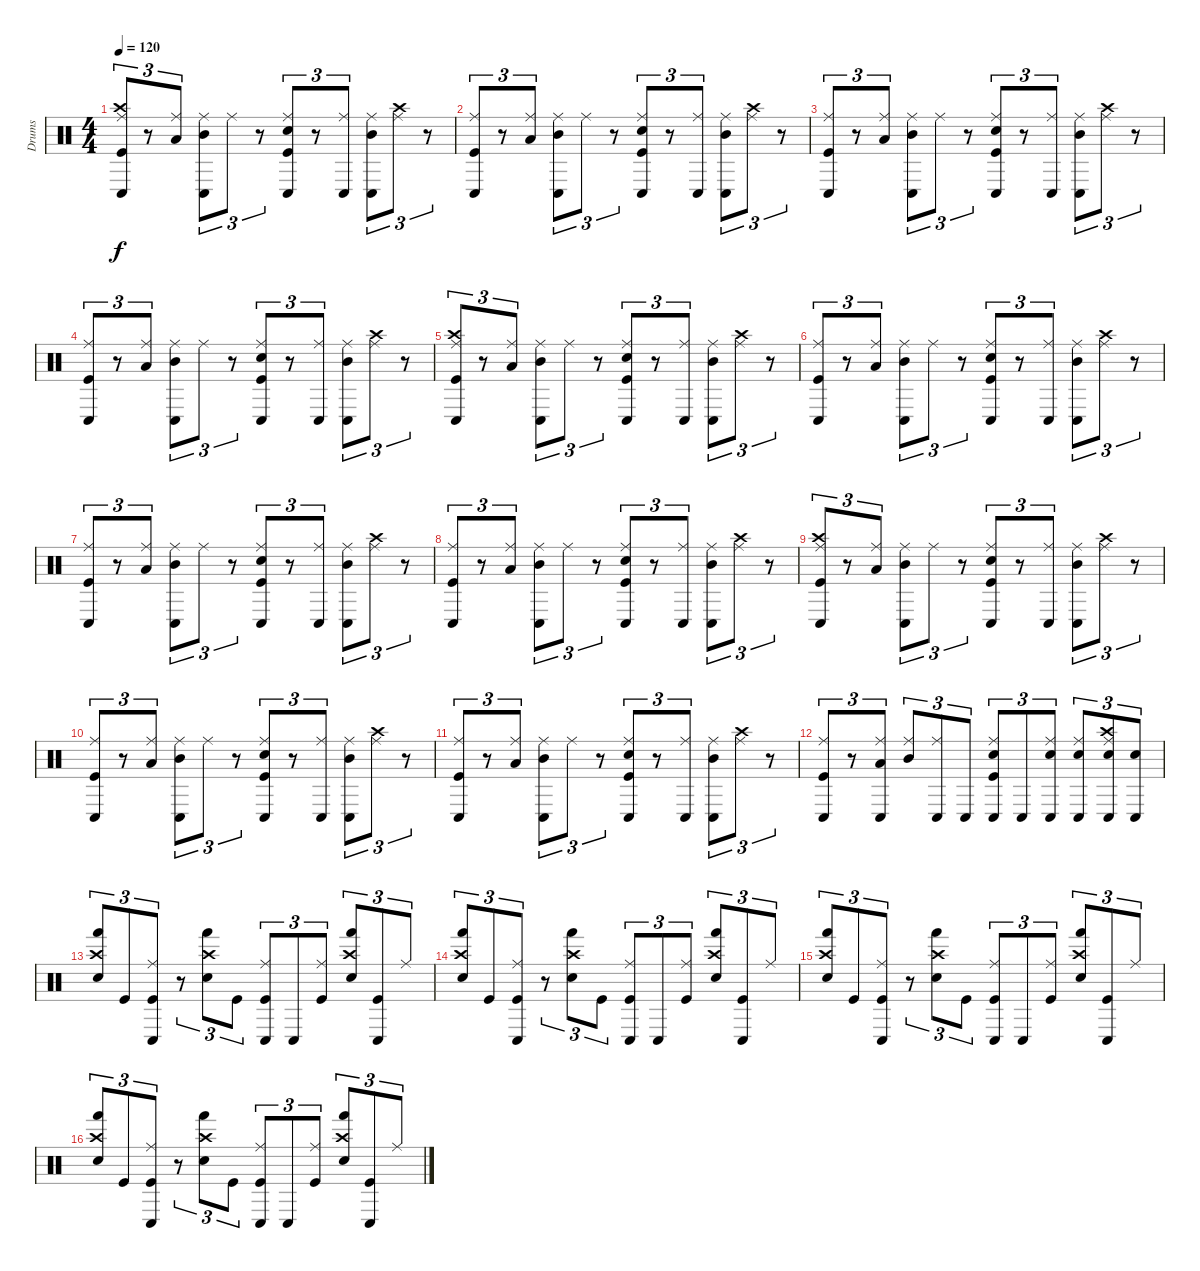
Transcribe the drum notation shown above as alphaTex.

\track ("Drums" "Drums") {instrument percussion}
\staff {score}
\articulation defaults
\ts (4 4)
\tempo 120
\clef neutral
\ks c
("Kick (hit)" "Ride (middle)" "Crash high (hit)" "Conga low (hit)").8{tu (3 2) dy f} r.8{tu (3 2)} ("Low Floor Tom (hit)" "Ride (middle)").8{tu (3 2)} ("Mid Tom (hit)" "Ride (middle)" "Conga low (hit)").8{tu (3 2)} "Ride (middle)".8{tu (3 2)} r.8{tu (3 2)} ("Kick (hit)" "Snare (hit) 2" "Ride (middle)" "Conga low (hit)").8{tu (3 2)} r.8{tu (3 2)} ("Ride (middle)" "Conga low (hit)").8{tu (3 2)} ("Mid Tom (hit)" "Ride (middle)" "Conga low (hit)").8{tu (3 2)} ("Ride (middle)" "Crash high (hit)").8{tu (3 2)} r.8{tu (3 2)} |
("Kick (hit)" "Ride (middle)" "Conga low (hit)").8{tu (3 2)} r.8{tu (3 2)} ("Low Floor Tom (hit)" "Ride (middle)").8{tu (3 2)} ("Mid Tom (hit)" "Ride (middle)" "Conga low (hit)").8{tu (3 2)} "Ride (middle)".8{tu (3 2)} r.8{tu (3 2)} ("Kick (hit)" "Snare (hit) 2" "Ride (middle)" "Conga low (hit)").8{tu (3 2)} r.8{tu (3 2)} ("Ride (middle)" "Conga low (hit)").8{tu (3 2)} ("Mid Tom (hit)" "Ride (middle)" "Conga low (hit)").8{tu (3 2)} ("Ride (middle)" "Crash high (hit)").8{tu (3 2)} r.8{tu (3 2)} |
("Kick (hit)" "Ride (middle)" "Conga low (hit)").8{tu (3 2)} r.8{tu (3 2)} ("Low Floor Tom (hit)" "Ride (middle)").8{tu (3 2)} ("Mid Tom (hit)" "Ride (middle)" "Conga low (hit)").8{tu (3 2)} "Ride (middle)".8{tu (3 2)} r.8{tu (3 2)} ("Kick (hit)" "Snare (hit) 2" "Ride (middle)" "Conga low (hit)").8{tu (3 2)} r.8{tu (3 2)} ("Ride (middle)" "Conga low (hit)").8{tu (3 2)} ("Mid Tom (hit)" "Ride (middle)" "Conga low (hit)").8{tu (3 2)} ("Ride (middle)" "Crash high (hit)").8{tu (3 2)} r.8{tu (3 2)} |
("Kick (hit)" "Ride (middle)" "Conga low (hit)").8{tu (3 2)} r.8{tu (3 2)} ("Low Floor Tom (hit)" "Ride (middle)").8{tu (3 2)} ("Mid Tom (hit)" "Ride (middle)" "Conga low (hit)").8{tu (3 2)} "Ride (middle)".8{tu (3 2)} r.8{tu (3 2)} ("Kick (hit)" "Snare (hit) 2" "Ride (middle)" "Conga low (hit)").8{tu (3 2)} r.8{tu (3 2)} ("Ride (middle)" "Conga low (hit)").8{tu (3 2)} ("Mid Tom (hit)" "Ride (middle)" "Conga low (hit)").8{tu (3 2)} ("Ride (middle)" "Crash high (hit)").8{tu (3 2)} r.8{tu (3 2)} |
("Kick (hit)" "Ride (middle)" "Crash high (hit)" "Conga low (hit)").8{tu (3 2)} r.8{tu (3 2)} ("Low Floor Tom (hit)" "Ride (middle)").8{tu (3 2)} ("Mid Tom (hit)" "Ride (middle)" "Conga low (hit)").8{tu (3 2)} "Ride (middle)".8{tu (3 2)} r.8{tu (3 2)} ("Kick (hit)" "Snare (hit) 2" "Ride (middle)" "Conga low (hit)").8{tu (3 2)} r.8{tu (3 2)} ("Ride (middle)" "Conga low (hit)").8{tu (3 2)} ("Mid Tom (hit)" "Ride (middle)" "Conga low (hit)").8{tu (3 2)} ("Ride (middle)" "Crash high (hit)").8{tu (3 2)} r.8{tu (3 2)} |
("Kick (hit)" "Ride (middle)" "Conga low (hit)").8{tu (3 2)} r.8{tu (3 2)} ("Low Floor Tom (hit)" "Ride (middle)").8{tu (3 2)} ("Mid Tom (hit)" "Ride (middle)" "Conga low (hit)").8{tu (3 2)} "Ride (middle)".8{tu (3 2)} r.8{tu (3 2)} ("Kick (hit)" "Snare (hit) 2" "Ride (middle)" "Conga low (hit)").8{tu (3 2)} r.8{tu (3 2)} ("Ride (middle)" "Conga low (hit)").8{tu (3 2)} ("Mid Tom (hit)" "Ride (middle)" "Conga low (hit)").8{tu (3 2)} ("Ride (middle)" "Crash high (hit)").8{tu (3 2)} r.8{tu (3 2)} |
("Kick (hit)" "Ride (middle)" "Conga low (hit)").8{tu (3 2)} r.8{tu (3 2)} ("Low Floor Tom (hit)" "Ride (middle)").8{tu (3 2)} ("Mid Tom (hit)" "Ride (middle)" "Conga low (hit)").8{tu (3 2)} "Ride (middle)".8{tu (3 2)} r.8{tu (3 2)} ("Kick (hit)" "Snare (hit) 2" "Ride (middle)" "Conga low (hit)").8{tu (3 2)} r.8{tu (3 2)} ("Ride (middle)" "Conga low (hit)").8{tu (3 2)} ("Mid Tom (hit)" "Ride (middle)" "Conga low (hit)").8{tu (3 2)} ("Ride (middle)" "Crash high (hit)").8{tu (3 2)} r.8{tu (3 2)} |
("Kick (hit)" "Ride (middle)" "Conga low (hit)").8{tu (3 2)} r.8{tu (3 2)} ("Low Floor Tom (hit)" "Ride (middle)").8{tu (3 2)} ("Mid Tom (hit)" "Ride (middle)" "Conga low (hit)").8{tu (3 2)} "Ride (middle)".8{tu (3 2)} r.8{tu (3 2)} ("Kick (hit)" "Snare (hit) 2" "Ride (middle)" "Conga low (hit)").8{tu (3 2)} r.8{tu (3 2)} ("Ride (middle)" "Conga low (hit)").8{tu (3 2)} ("Mid Tom (hit)" "Ride (middle)" "Conga low (hit)").8{tu (3 2)} ("Ride (middle)" "Crash high (hit)").8{tu (3 2)} r.8{tu (3 2)} |
("Kick (hit)" "Ride (middle)" "Crash high (hit)" "Conga low (hit)").8{tu (3 2)} r.8{tu (3 2)} ("Low Floor Tom (hit)" "Ride (middle)").8{tu (3 2)} ("Mid Tom (hit)" "Ride (middle)" "Conga low (hit)").8{tu (3 2)} "Ride (middle)".8{tu (3 2)} r.8{tu (3 2)} ("Kick (hit)" "Snare (hit) 2" "Ride (middle)" "Conga low (hit)").8{tu (3 2)} r.8{tu (3 2)} ("Ride (middle)" "Conga low (hit)").8{tu (3 2)} ("Mid Tom (hit)" "Ride (middle)" "Conga low (hit)").8{tu (3 2)} ("Ride (middle)" "Crash high (hit)").8{tu (3 2)} r.8{tu (3 2)} |
("Kick (hit)" "Ride (middle)" "Conga low (hit)").8{tu (3 2)} r.8{tu (3 2)} ("Low Floor Tom (hit)" "Ride (middle)").8{tu (3 2)} ("Mid Tom (hit)" "Ride (middle)" "Conga low (hit)").8{tu (3 2)} "Ride (middle)".8{tu (3 2)} r.8{tu (3 2)} ("Kick (hit)" "Snare (hit) 2" "Ride (middle)" "Conga low (hit)").8{tu (3 2)} r.8{tu (3 2)} ("Ride (middle)" "Conga low (hit)").8{tu (3 2)} ("Mid Tom (hit)" "Ride (middle)" "Conga low (hit)").8{tu (3 2)} ("Ride (middle)" "Crash high (hit)").8{tu (3 2)} r.8{tu (3 2)} |
("Kick (hit)" "Ride (middle)" "Conga low (hit)").8{tu (3 2)} r.8{tu (3 2)} ("Low Floor Tom (hit)" "Ride (middle)").8{tu (3 2)} ("Mid Tom (hit)" "Ride (middle)" "Conga low (hit)").8{tu (3 2)} "Ride (middle)".8{tu (3 2)} r.8{tu (3 2)} ("Kick (hit)" "Snare (hit) 2" "Ride (middle)" "Conga low (hit)").8{tu (3 2)} r.8{tu (3 2)} ("Ride (middle)" "Conga low (hit)").8{tu (3 2)} ("Mid Tom (hit)" "Ride (middle)" "Conga low (hit)").8{tu (3 2)} ("Ride (middle)" "Crash high (hit)").8{tu (3 2)} r.8{tu (3 2)} |
("Kick (hit)" "Ride (middle)" "Conga low (hit)").8{tu (3 2)} r.8{tu (3 2)} ("Low Floor Tom (hit)" "Ride (middle)" "Conga low (hit)").8{tu (3 2)} ("Mid Tom (hit)" "Ride (middle)").8{tu (3 2)} ("Ride (middle)" "Conga low (hit)").8{tu (3 2)} "Conga low (hit)".8{tu (3 2)} ("Kick (hit)" "Snare (hit) 2" "Ride (middle)" "Conga low (hit)").8{tu (3 2)} "Conga low (hit)".8{tu (3 2)} ("Snare (hit) 2" "Ride (middle)" "Conga low (hit)").8{tu (3 2)} ("Snare (hit) 2" "Ride (middle)" "Conga low (hit)").8{tu (3 2)} ("Snare (hit) 2" "Ride (middle)" "Crash high (hit)" "Conga low (hit)").8{tu (3 2)} ("Snare (hit) 2" "Conga low (hit)").8{tu (3 2)} |
("Snare (hit) 2" "Crash high (hit)" "Hand (hit)").8{tu (3 2)} "Kick (hit)".8{tu (3 2)} ("Kick (hit)" "Ride (middle)" "Conga low (hit)").8{tu (3 2)} r.8{tu (3 2)} ("Snare (hit) 2" "Crash high (hit)" "Hand (hit)").8{tu (3 2)} "Kick (hit)".8{tu (3 2)} ("Kick (hit)" "Ride (middle)" "Conga low (hit)").8{tu (3 2)} "Conga low (hit)".8{tu (3 2)} ("Kick (hit)" "Ride (middle)").8{tu (3 2)} ("Snare (hit) 2" "Crash high (hit)" "Hand (hit)").8{tu (3 2)} ("Kick (hit)" "Conga low (hit)").8{tu (3 2)} "Ride (middle)".8{tu (3 2)} |
("Snare (hit) 2" "Crash high (hit)" "Hand (hit)").8{tu (3 2)} "Kick (hit)".8{tu (3 2)} ("Kick (hit)" "Ride (middle)" "Conga low (hit)").8{tu (3 2)} r.8{tu (3 2)} ("Snare (hit) 2" "Crash high (hit)" "Hand (hit)").8{tu (3 2)} "Kick (hit)".8{tu (3 2)} ("Kick (hit)" "Ride (middle)" "Conga low (hit)").8{tu (3 2)} "Conga low (hit)".8{tu (3 2)} ("Kick (hit)" "Ride (middle)").8{tu (3 2)} ("Snare (hit) 2" "Crash high (hit)" "Hand (hit)").8{tu (3 2)} ("Kick (hit)" "Conga low (hit)").8{tu (3 2)} "Ride (middle)".8{tu (3 2)} |
("Snare (hit) 2" "Crash high (hit)" "Hand (hit)").8{tu (3 2)} "Kick (hit)".8{tu (3 2)} ("Kick (hit)" "Ride (middle)" "Conga low (hit)").8{tu (3 2)} r.8{tu (3 2)} ("Snare (hit) 2" "Crash high (hit)" "Hand (hit)").8{tu (3 2)} "Kick (hit)".8{tu (3 2)} ("Kick (hit)" "Ride (middle)" "Conga low (hit)").8{tu (3 2)} "Conga low (hit)".8{tu (3 2)} ("Kick (hit)" "Ride (middle)").8{tu (3 2)} ("Snare (hit) 2" "Crash high (hit)" "Hand (hit)").8{tu (3 2)} ("Kick (hit)" "Conga low (hit)").8{tu (3 2)} "Ride (middle)".8{tu (3 2)} |
("Snare (hit) 2" "Crash high (hit)" "Hand (hit)").8{tu (3 2)} "Kick (hit)".8{tu (3 2)} ("Kick (hit)" "Ride (middle)" "Conga low (hit)").8{tu (3 2)} r.8{tu (3 2)} ("Snare (hit) 2" "Crash high (hit)" "Hand (hit)").8{tu (3 2)} "Kick (hit)".8{tu (3 2)} ("Kick (hit)" "Ride (middle)" "Conga low (hit)").8{tu (3 2)} "Conga low (hit)".8{tu (3 2)} ("Kick (hit)" "Ride (middle)").8{tu (3 2)} ("Snare (hit) 2" "Crash high (hit)" "Hand (hit)").8{tu (3 2)} ("Kick (hit)" "Conga low (hit)").8{tu (3 2)} "Ride (middle)".8{tu (3 2)}
